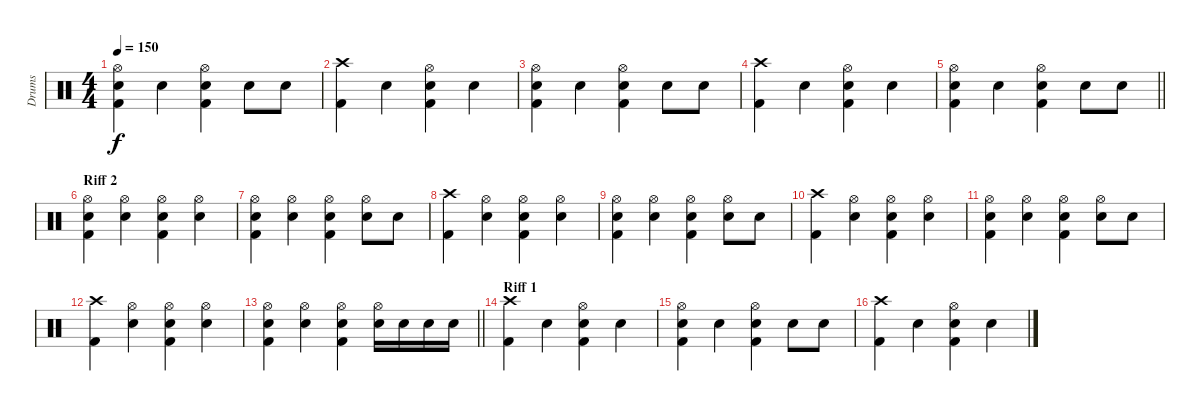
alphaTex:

\track ("Drums" "Drums") {instrument percussion}
\staff
\articulation defaults
\ts (4 4)
\tempo 150
\clef neutral
\ks c
("Hi-Hat (open)" "Snare (hit) 2" "Kick (hit) 2").4{dy f} "Snare (hit) 2".4 ("Hi-Hat (open)" "Snare (hit) 2" "Kick (hit) 2").4 "Snare (hit) 2".8 "Snare (hit) 2".8 |
("Crash high (hit)" "Kick (hit) 2").4 "Snare (hit) 2".4 ("Hi-Hat (open)" "Snare (hit) 2" "Kick (hit) 2").4 "Snare (hit) 2".4 |
("Hi-Hat (open)" "Snare (hit) 2" "Kick (hit) 2").4 "Snare (hit) 2".4 ("Hi-Hat (open)" "Snare (hit) 2" "Kick (hit) 2").4 "Snare (hit) 2".8 "Snare (hit) 2".8 |
("Crash high (hit)" "Kick (hit) 2").4 "Snare (hit) 2".4 ("Hi-Hat (open)" "Snare (hit) 2" "Kick (hit) 2").4 "Snare (hit) 2".4 |
\barLineRight lightlight
("Hi-Hat (open)" "Snare (hit) 2" "Kick (hit) 2").4 "Snare (hit) 2".4 ("Hi-Hat (open)" "Snare (hit) 2" "Kick (hit) 2").4 "Snare (hit) 2".8 "Snare (hit) 2".8 |
\section ("" "Riff 2")
("Hi-Hat (open)" "Snare (hit) 2" "Kick (hit) 2").4 ("Hi-Hat (open)" "Snare (hit) 2").4 ("Hi-Hat (open)" "Snare (hit) 2" "Kick (hit) 2").4 ("Hi-Hat (open)" "Snare (hit) 2").4 |
("Hi-Hat (open)" "Snare (hit) 2" "Kick (hit) 2").4 ("Hi-Hat (open)" "Snare (hit) 2").4 ("Hi-Hat (open)" "Snare (hit) 2" "Kick (hit) 2").4 ("Hi-Hat (open)" "Snare (hit) 2").8 "Snare (hit) 2".8 |
("Crash high (hit)" "Kick (hit) 2").4 ("Hi-Hat (open)" "Snare (hit) 2").4 ("Hi-Hat (open)" "Snare (hit) 2" "Kick (hit) 2").4 ("Hi-Hat (open)" "Snare (hit) 2").4 |
("Hi-Hat (open)" "Snare (hit) 2" "Kick (hit) 2").4 ("Hi-Hat (open)" "Snare (hit) 2").4 ("Hi-Hat (open)" "Snare (hit) 2" "Kick (hit) 2").4 ("Hi-Hat (open)" "Snare (hit) 2").8 "Snare (hit) 2".8 |
("Crash high (hit)" "Kick (hit) 2").4 ("Hi-Hat (open)" "Snare (hit) 2").4 ("Hi-Hat (open)" "Snare (hit) 2" "Kick (hit) 2").4 ("Hi-Hat (open)" "Snare (hit) 2").4 |
("Hi-Hat (open)" "Snare (hit) 2" "Kick (hit) 2").4 ("Hi-Hat (open)" "Snare (hit) 2").4 ("Hi-Hat (open)" "Snare (hit) 2" "Kick (hit) 2").4 ("Hi-Hat (open)" "Snare (hit) 2").8 "Snare (hit) 2".8 |
("Crash high (hit)" "Kick (hit) 2").4 ("Hi-Hat (open)" "Snare (hit) 2").4 ("Hi-Hat (open)" "Snare (hit) 2" "Kick (hit) 2").4 ("Hi-Hat (open)" "Snare (hit) 2").4 |
\barLineRight lightlight
("Hi-Hat (open)" "Snare (hit) 2" "Kick (hit) 2").4 ("Hi-Hat (open)" "Snare (hit) 2").4 ("Hi-Hat (open)" "Snare (hit) 2" "Kick (hit) 2").4 ("Hi-Hat (open)" "Snare (hit) 2").16 "Snare (hit) 2".16 "Snare (hit) 2".16 "Snare (hit) 2".16 |
\section ("" "Riff 1")
("Crash high (hit)" "Kick (hit) 2").4 "Snare (hit) 2".4 ("Hi-Hat (open)" "Snare (hit) 2" "Kick (hit) 2").4 "Snare (hit) 2".4 |
("Hi-Hat (open)" "Snare (hit) 2" "Kick (hit) 2").4 "Snare (hit) 2".4 ("Hi-Hat (open)" "Snare (hit) 2" "Kick (hit) 2").4 "Snare (hit) 2".8 "Snare (hit) 2".8 |
("Crash high (hit)" "Kick (hit) 2").4 "Snare (hit) 2".4 ("Hi-Hat (open)" "Snare (hit) 2" "Kick (hit) 2").4 "Snare (hit) 2".4
